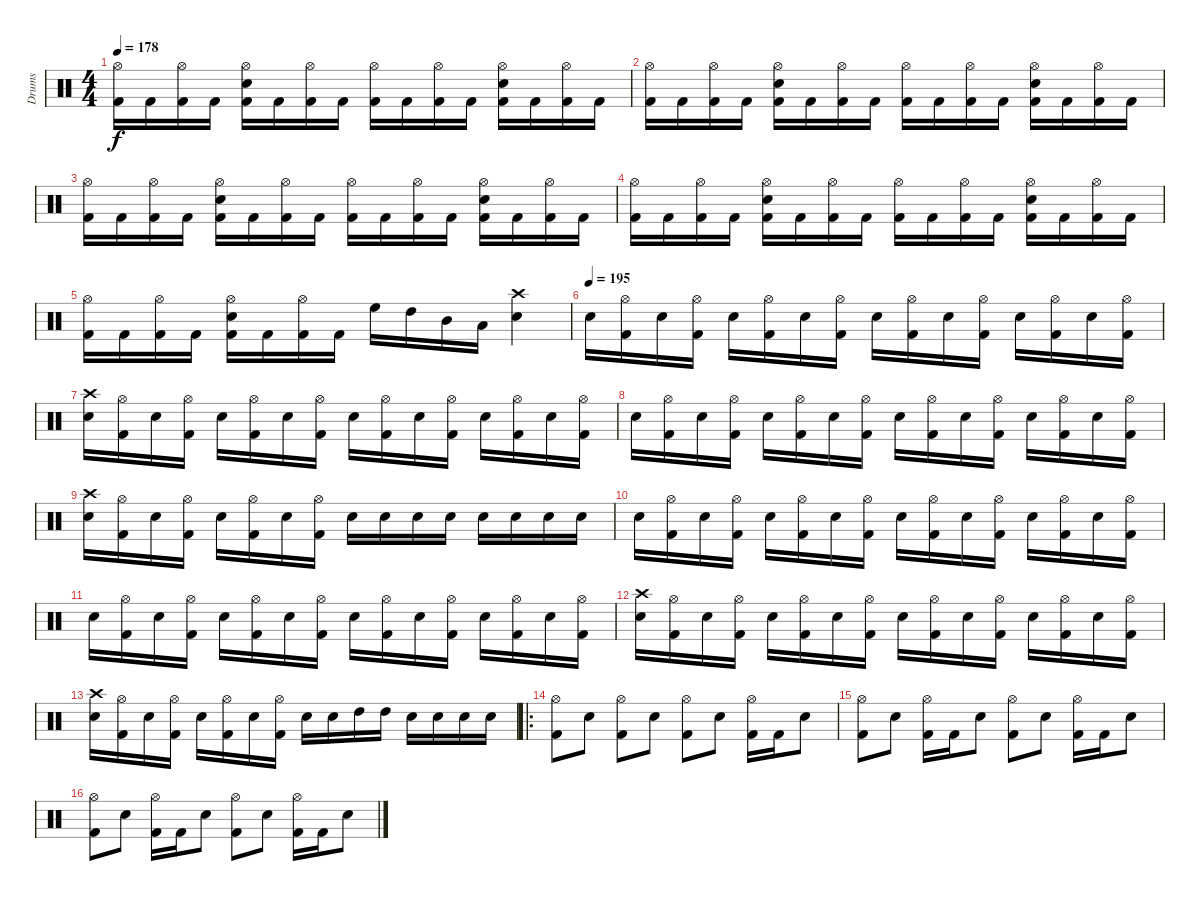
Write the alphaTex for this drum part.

\track ("Drums" "Drums") {instrument percussion}
\staff {score}
\articulation defaults
\ts (4 4)
\tempo 178
\clef neutral
\ks c
("Hi-Hat (open)" "Kick (hit) 2").16{dy f} "Kick (hit) 2".16 ("Hi-Hat (open)" "Kick (hit) 2").16 "Kick (hit) 2".16 ("Hi-Hat (open)" "Snare (hit) 2" "Kick (hit) 2").16 "Kick (hit) 2".16 ("Hi-Hat (open)" "Kick (hit) 2").16 "Kick (hit) 2".16 ("Hi-Hat (open)" "Kick (hit) 2").16 "Kick (hit) 2".16 ("Hi-Hat (open)" "Kick (hit) 2").16 "Kick (hit) 2".16 ("Hi-Hat (open)" "Snare (hit) 2" "Kick (hit) 2").16 "Kick (hit) 2".16 ("Hi-Hat (open)" "Kick (hit) 2").16 "Kick (hit) 2".16 |
("Hi-Hat (open)" "Kick (hit) 2").16 "Kick (hit) 2".16 ("Hi-Hat (open)" "Kick (hit) 2").16 "Kick (hit) 2".16 ("Hi-Hat (open)" "Snare (hit) 2" "Kick (hit) 2").16 "Kick (hit) 2".16 ("Hi-Hat (open)" "Kick (hit) 2").16 "Kick (hit) 2".16 ("Hi-Hat (open)" "Kick (hit) 2").16 "Kick (hit) 2".16 ("Hi-Hat (open)" "Kick (hit) 2").16 "Kick (hit) 2".16 ("Hi-Hat (open)" "Snare (hit) 2" "Kick (hit) 2").16 "Kick (hit) 2".16 ("Hi-Hat (open)" "Kick (hit) 2").16 "Kick (hit) 2".16 |
("Hi-Hat (open)" "Kick (hit) 2").16 "Kick (hit) 2".16 ("Hi-Hat (open)" "Kick (hit) 2").16 "Kick (hit) 2".16 ("Hi-Hat (open)" "Snare (hit) 2" "Kick (hit) 2").16 "Kick (hit) 2".16 ("Hi-Hat (open)" "Kick (hit) 2").16 "Kick (hit) 2".16 ("Hi-Hat (open)" "Kick (hit) 2").16 "Kick (hit) 2".16 ("Hi-Hat (open)" "Kick (hit) 2").16 "Kick (hit) 2".16 ("Hi-Hat (open)" "Snare (hit) 2" "Kick (hit) 2").16 "Kick (hit) 2".16 ("Hi-Hat (open)" "Kick (hit) 2").16 "Kick (hit) 2".16 |
("Hi-Hat (open)" "Kick (hit) 2").16 "Kick (hit) 2".16 ("Hi-Hat (open)" "Kick (hit) 2").16 "Kick (hit) 2".16 ("Hi-Hat (open)" "Snare (hit) 2" "Kick (hit) 2").16 "Kick (hit) 2".16 ("Hi-Hat (open)" "Kick (hit) 2").16 "Kick (hit) 2".16 ("Hi-Hat (open)" "Kick (hit) 2").16 "Kick (hit) 2".16 ("Hi-Hat (open)" "Kick (hit) 2").16 "Kick (hit) 2".16 ("Hi-Hat (open)" "Snare (hit) 2" "Kick (hit) 2").16 "Kick (hit) 2".16 ("Hi-Hat (open)" "Kick (hit) 2").16 "Kick (hit) 2".16 |
("Hi-Hat (open)" "Kick (hit) 2").16 "Kick (hit) 2".16 ("Hi-Hat (open)" "Kick (hit) 2").16 "Kick (hit) 2".16 ("Hi-Hat (open)" "Snare (hit) 2" "Kick (hit) 2").16 "Kick (hit) 2".16 ("Hi-Hat (open)" "Kick (hit) 2").16 "Kick (hit) 2".16 "High Floor Tom (hit)".16 "High Tom (hit)".16 "Mid Tom (hit)".16 "Low Tom (hit)".16 ("Crash high (hit)" "Snare (hit) 2").4 |
\tempo (195)
"Snare (hit) 2".16 ("Hi-Hat (open)" "Kick (hit) 2").16 "Snare (hit) 2".16 ("Hi-Hat (open)" "Kick (hit) 2").16 "Snare (hit) 2".16 ("Hi-Hat (open)" "Kick (hit) 2").16 "Snare (hit) 2".16 ("Hi-Hat (open)" "Kick (hit) 2").16 "Snare (hit) 2".16 ("Hi-Hat (open)" "Kick (hit) 2").16 "Snare (hit) 2".16 ("Hi-Hat (open)" "Kick (hit) 2").16 "Snare (hit) 2".16 ("Hi-Hat (open)" "Kick (hit) 2").16 "Snare (hit) 2".16 ("Hi-Hat (open)" "Kick (hit) 2").16 |
("Crash high (hit)" "Snare (hit) 2").16 ("Hi-Hat (open)" "Kick (hit) 2").16 "Snare (hit) 2".16 ("Hi-Hat (open)" "Kick (hit) 2").16 "Snare (hit) 2".16 ("Hi-Hat (open)" "Kick (hit) 2").16 "Snare (hit) 2".16 ("Hi-Hat (open)" "Kick (hit) 2").16 "Snare (hit) 2".16 ("Hi-Hat (open)" "Kick (hit) 2").16 "Snare (hit) 2".16 ("Hi-Hat (open)" "Kick (hit) 2").16 "Snare (hit) 2".16 ("Hi-Hat (open)" "Kick (hit) 2").16 "Snare (hit) 2".16 ("Hi-Hat (open)" "Kick (hit) 2").16 |
"Snare (hit) 2".16 ("Hi-Hat (open)" "Kick (hit) 2").16 "Snare (hit) 2".16 ("Hi-Hat (open)" "Kick (hit) 2").16 "Snare (hit) 2".16 ("Hi-Hat (open)" "Kick (hit) 2").16 "Snare (hit) 2".16 ("Hi-Hat (open)" "Kick (hit) 2").16 "Snare (hit) 2".16 ("Hi-Hat (open)" "Kick (hit) 2").16 "Snare (hit) 2".16 ("Hi-Hat (open)" "Kick (hit) 2").16 "Snare (hit) 2".16 ("Hi-Hat (open)" "Kick (hit) 2").16 "Snare (hit) 2".16 ("Hi-Hat (open)" "Kick (hit) 2").16 |
("Crash high (hit)" "Snare (hit) 2").16 ("Hi-Hat (open)" "Kick (hit) 2").16 "Snare (hit) 2".16 ("Hi-Hat (open)" "Kick (hit) 2").16 "Snare (hit) 2".16 ("Hi-Hat (open)" "Kick (hit) 2").16 "Snare (hit) 2".16 ("Hi-Hat (open)" "Kick (hit) 2").16 "Snare (hit) 2".16 "Snare (hit) 2".16 "Snare (hit) 2".16 "Snare (hit) 2".16 "Snare (hit) 2".16 "Snare (hit) 2".16 "Snare (hit) 2".16 "Snare (hit) 2".16 |
"Snare (hit) 2".16 ("Hi-Hat (open)" "Kick (hit) 2").16 "Snare (hit) 2".16 ("Hi-Hat (open)" "Kick (hit) 2").16 "Snare (hit) 2".16 ("Hi-Hat (open)" "Kick (hit) 2").16 "Snare (hit) 2".16 ("Hi-Hat (open)" "Kick (hit) 2").16 "Snare (hit) 2".16 ("Hi-Hat (open)" "Kick (hit) 2").16 "Snare (hit) 2".16 ("Hi-Hat (open)" "Kick (hit) 2").16 "Snare (hit) 2".16 ("Hi-Hat (open)" "Kick (hit) 2").16 "Snare (hit) 2".16 ("Hi-Hat (open)" "Kick (hit) 2").16 |
"Snare (hit) 2".16 ("Hi-Hat (open)" "Kick (hit) 2").16 "Snare (hit) 2".16 ("Hi-Hat (open)" "Kick (hit) 2").16 "Snare (hit) 2".16 ("Hi-Hat (open)" "Kick (hit) 2").16 "Snare (hit) 2".16 ("Hi-Hat (open)" "Kick (hit) 2").16 "Snare (hit) 2".16 ("Hi-Hat (open)" "Kick (hit) 2").16 "Snare (hit) 2".16 ("Hi-Hat (open)" "Kick (hit) 2").16 "Snare (hit) 2".16 ("Hi-Hat (open)" "Kick (hit) 2").16 "Snare (hit) 2".16 ("Hi-Hat (open)" "Kick (hit) 2").16 |
("Crash high (hit)" "Snare (hit) 2").16 ("Hi-Hat (open)" "Kick (hit) 2").16 "Snare (hit) 2".16 ("Hi-Hat (open)" "Kick (hit) 2").16 "Snare (hit) 2".16 ("Hi-Hat (open)" "Kick (hit) 2").16 "Snare (hit) 2".16 ("Hi-Hat (open)" "Kick (hit) 2").16 "Snare (hit) 2".16 ("Hi-Hat (open)" "Kick (hit) 2").16 "Snare (hit) 2".16 ("Hi-Hat (open)" "Kick (hit) 2").16 "Snare (hit) 2".16 ("Hi-Hat (open)" "Kick (hit) 2").16 "Snare (hit) 2".16 ("Hi-Hat (open)" "Kick (hit) 2").16 |
("Crash high (hit)" "Snare (hit) 2").16 ("Hi-Hat (open)" "Kick (hit) 2").16 "Snare (hit) 2".16 ("Hi-Hat (open)" "Kick (hit) 2").16 "Snare (hit) 2".16 ("Hi-Hat (open)" "Kick (hit) 2").16 "Snare (hit) 2".16 ("Hi-Hat (open)" "Kick (hit) 2").16 "Snare (hit) 2".16 "Snare (hit) 2".16 "High Tom (hit)".16 "High Tom (hit)".16 "Snare (hit) 2".16 "Snare (hit) 2".16 "Snare (hit) 2".16 "Snare (hit) 2".16 |
\ro
("Hi-Hat (open)" "Kick (hit) 2").8 "Snare (hit) 2".8 ("Hi-Hat (open)" "Kick (hit) 2").8 "Snare (hit) 2".8 ("Hi-Hat (open)" "Kick (hit) 2").8 "Snare (hit) 2".8 ("Hi-Hat (open)" "Kick (hit) 2").16 "Kick (hit) 2".16 "Snare (hit) 2".8 |
("Hi-Hat (open)" "Kick (hit) 2").8 "Snare (hit) 2".8 ("Hi-Hat (open)" "Kick (hit) 2").16 "Kick (hit) 2".16 "Snare (hit) 2".8 ("Hi-Hat (open)" "Kick (hit) 2").8 "Snare (hit) 2".8 ("Hi-Hat (open)" "Kick (hit) 2").16 "Kick (hit) 2".16 "Snare (hit) 2".8 |
("Hi-Hat (open)" "Kick (hit) 2").8 "Snare (hit) 2".8 ("Hi-Hat (open)" "Kick (hit) 2").16 "Kick (hit) 2".16 "Snare (hit) 2".8 ("Hi-Hat (open)" "Kick (hit) 2").8 "Snare (hit) 2".8 ("Hi-Hat (open)" "Kick (hit) 2").16 "Kick (hit) 2".16 "Snare (hit) 2".8
